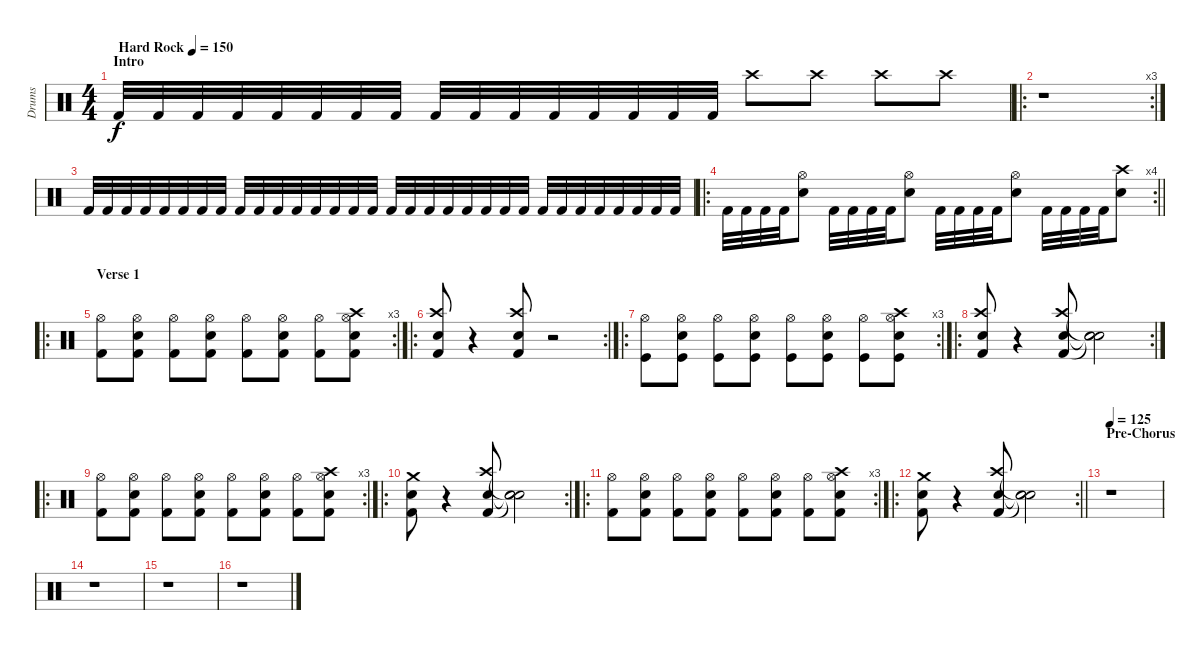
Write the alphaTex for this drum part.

\track ("Drums" "Drums") {instrument percussion}
\staff {score}
\articulation defaults
\ts (4 4)
\section ("" "Intro")
\tempo (150 "Hard Rock")
\clef neutral
\ks c "Kick (hit) 2".32{dy f} "Kick (hit) 2".32 "Kick (hit) 2".32 "Kick (hit) 2".32 "Kick (hit) 2".32 "Kick (hit) 2".32 "Kick (hit) 2".32 "Kick (hit) 2".32 "Kick (hit) 2".32 "Kick (hit) 2".32 "Kick (hit) 2".32 "Kick (hit) 2".32 "Kick (hit) 2".32 "Kick (hit) 2".32 "Kick (hit) 2".32 "Kick (hit) 2".32 "Crash high (hit)".8 "Crash high (hit)".8 "Crash high (hit)".8 "Crash high (hit)".8
|
\ro
\rc 3
r.1 |
"Kick (hit) 2".32 "Kick (hit) 2".32 "Kick (hit) 2".32 "Kick (hit) 2".32 "Kick (hit) 2".32 "Kick (hit) 2".32 "Kick (hit) 2".32 "Kick (hit) 2".32 "Kick (hit) 2".32 "Kick (hit) 2".32 "Kick (hit) 2".32 "Kick (hit) 2".32 "Kick (hit) 2".32 "Kick (hit) 2".32 "Kick (hit) 2".32 "Kick (hit) 2".32 "Kick (hit) 2".32 "Kick (hit) 2".32 "Kick (hit) 2".32 "Kick (hit) 2".32 "Kick (hit) 2".32 "Kick (hit) 2".32 "Kick (hit) 2".32 "Kick (hit) 2".32 "Kick (hit) 2".32 "Kick (hit) 2".32 "Kick (hit) 2".32 "Kick (hit) 2".32 "Kick (hit) 2".32 "Kick (hit) 2".32 "Kick (hit) 2".32 "Kick (hit) 2".32 |
\ro
\rc 4
\barLineRight lightlight "Kick (hit) 2".32 "Kick (hit) 2".32 "Kick (hit) 2".32 "Kick (hit) 2".32
("Hi-Hat (open)" "Snare (hit) 2").8 "Kick (hit) 2".32 "Kick (hit) 2".32 "Kick (hit) 2".32 "Kick (hit) 2".32 ("Hi-Hat (open)" "Snare (hit) 2").8 "Kick (hit) 2".32 "Kick (hit) 2".32 "Kick (hit) 2".32 "Kick (hit) 2".32 ("Hi-Hat (open)" "Snare (hit) 2").8 "Kick (hit) 2".32 "Kick (hit) 2".32 "Kick (hit) 2".32 "Kick (hit) 2".32 ("Crash high (hit)" "Snare (hit) 2").8 |
\ro
\rc 3
\section ("" "Verse 1")
("Hi-Hat (open)" "Kick (hit) 2").8 ("Hi-Hat (open)" "Snare (hit) 2" "Kick (hit) 2").8 ("Hi-Hat (open)" "Kick (hit) 2").8 ("Hi-Hat (open)" "Snare (hit) 2" "Kick (hit) 2").8 ("Hi-Hat (open)" "Kick (hit) 2").8 ("Hi-Hat (open)" "Snare (hit) 2" "Kick (hit) 2").8 ("Hi-Hat (open)" "Kick (hit) 2").8 ("Snare (hit) 2" "Crash high (hit)" "Hi-Hat (open)" "Kick (hit) 2").8 |
\ro
\rc 2
("Snare (hit) 2" "Crash high (hit)" "Kick (hit) 2").8 r.4 ("Snare (hit) 2" "Crash high (hit)" "Kick (hit) 2").8 r.2 |
\ro
\rc 3
("Hi-Hat (open)" "Kick (hit)").8 ("Hi-Hat (open)" "Electric Snare (hit)" "Kick (hit)").8 ("Hi-Hat (open)" "Kick (hit)").8 ("Hi-Hat (open)" "Electric Snare (hit)" "Kick (hit)").8 ("Hi-Hat (open)" "Kick (hit)").8 ("Hi-Hat (open)" "Electric Snare (hit)" "Kick (hit)").8 ("Hi-Hat (open)" "Kick (hit)").8 ("Electric Snare (hit)" "Crash high (hit)" "Hi-Hat (open)" "Kick (hit)").8 |
\ro
\rc 2
("Snare (hit) 2" "Crash high (hit)" "Kick (hit) 2").8 r.4 ("Snare (hit) 2" "Crash high (hit)" "Kick (hit) 2").8 ("Snare (hit)"{t} "Snare (hit)"{t} "Snare (hit)"{t}).2 |
\ro
\rc 3
("Hi-Hat (open)" "Kick (hit) 2").8 ("Hi-Hat (open)" "Snare (hit) 2" "Kick (hit) 2").8 ("Hi-Hat (open)" "Kick (hit) 2").8 ("Hi-Hat (open)" "Snare (hit) 2" "Kick (hit) 2").8 ("Hi-Hat (open)" "Kick (hit) 2").8 ("Hi-Hat (open)" "Snare (hit) 2" "Kick (hit) 2").8 ("Hi-Hat (open)" "Kick (hit) 2").8 ("Snare (hit) 2" "Hi-Hat (open)" "Crash high (hit)" "Kick (hit) 2").8 |
\ro
\rc 2
("Snare (hit) 2" "Crash medium (hit)" "Kick (hit) 2").8 r.4 ("Snare (hit) 2" "Crash high (hit)" "Kick (hit) 2").8 ("Snare (hit)"{t} "Snare (hit)"{t} "Snare (hit)"{t}).2 |
\ro
\rc 3
("Hi-Hat (open)" "Kick (hit) 2").8 ("Hi-Hat (open)" "Snare (hit) 2" "Kick (hit) 2").8 ("Hi-Hat (open)" "Kick (hit) 2").8 ("Hi-Hat (open)" "Snare (hit) 2" "Kick (hit) 2").8 ("Hi-Hat (open)" "Kick (hit) 2").8 ("Hi-Hat (open)" "Snare (hit) 2" "Kick (hit) 2").8 ("Hi-Hat (open)" "Kick (hit) 2").8 ("Snare (hit) 2" "Hi-Hat (open)" "Crash high (hit)" "Kick (hit) 2").8 |
\ro
\rc 2
\barLineRight lightlight
("Snare (hit) 2" "Crash medium (hit)" "Kick (hit) 2").8 r.4 ("Snare (hit) 2" "Crash high (hit)" "Kick (hit) 2").8 ("Snare (hit)"{t} "Snare (hit)"{t} "Snare (hit)"{t}).2 |
\section ("" "Pre-Chorus")
\tempo 125
r.1 |
r.1 |
r.1 |
r.1
